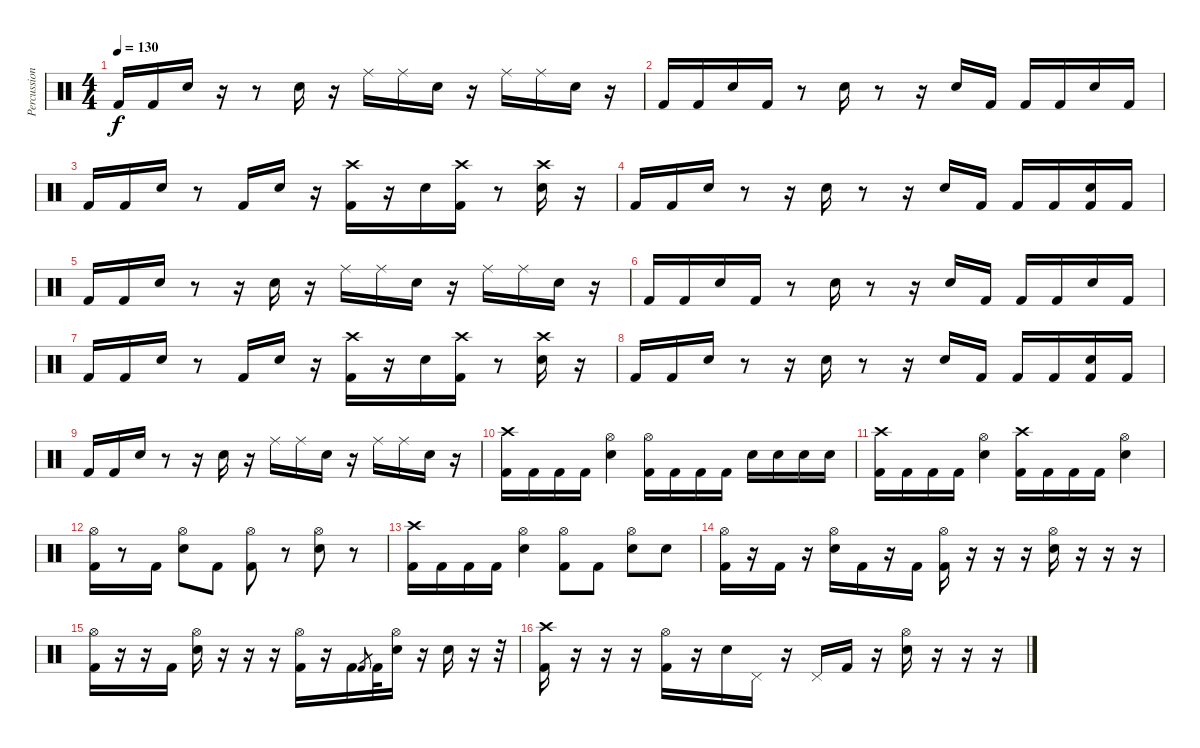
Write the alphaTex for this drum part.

\track ("Percussion" "Percussion") {instrument percussion}
\staff {score}
\articulation defaults
\ts (4 4)
\tempo 130
\clef neutral
\ks c "Kick (hit) 2".16{dy f} "Kick (hit) 2".16 "Snare (hit) 2".16
r.16 r.8 "Snare (hit) 2".16 r.16 "Ride (middle)".16 "Ride (middle)".16 "Snare (hit) 2".16 r.16 "Ride (middle)".16 "Ride (middle)".16 "Snare (hit) 2".16 r.16 |
"Kick (hit) 2".16 "Kick (hit) 2".16 "Snare (hit) 2".16 "Kick (hit) 2".16 r.8 "Snare (hit) 2".16 r.8 r.16 "Snare (hit) 2".16 "Kick (hit) 2".16 "Kick (hit) 2".16 "Kick (hit) 2".16 "Snare (hit) 2".16 "Kick (hit) 2".16 |
"Kick (hit) 2".16 "Kick (hit) 2".16 "Snare (hit) 2".16 r.8 "Kick (hit) 2".16 "Snare (hit) 2".16 r.16 ("Crash high (hit)" "Kick (hit) 2").16 r.16 "Snare (hit) 2".16 ("Crash high (hit)" "Kick (hit) 2").16 r.8 ("Crash high (hit)" "Snare (hit) 2").16 r.16 |
"Kick (hit) 2".16 "Kick (hit) 2".16 "Snare (hit) 2".16 r.8 r.16 "Snare (hit) 2".16 r.8 r.16 "Snare (hit) 2".16 "Kick (hit) 2".16 "Kick (hit) 2".16 "Kick (hit) 2".16 ("Snare (hit) 2" "Kick (hit) 2").16 "Kick (hit) 2".16 |
"Kick (hit) 2".16 "Kick (hit) 2".16 "Snare (hit) 2".16 r.8 r.16 "Snare (hit) 2".16 r.16 "Ride (middle)".16 "Ride (middle)".16 "Snare (hit) 2".16 r.16 "Ride (middle)".16 "Ride (middle)".16 "Snare (hit) 2".16 r.16 |
"Kick (hit) 2".16 "Kick (hit) 2".16 "Snare (hit) 2".16 "Kick (hit) 2".16 r.8 "Snare (hit) 2".16 r.8 r.16 "Snare (hit) 2".16 "Kick (hit) 2".16 "Kick (hit) 2".16 "Kick (hit) 2".16 "Snare (hit) 2".16 "Kick (hit) 2".16 |
"Kick (hit) 2".16 "Kick (hit) 2".16 "Snare (hit) 2".16 r.8 "Kick (hit) 2".16 "Snare (hit) 2".16 r.16 ("Crash high (hit)" "Kick (hit) 2").16 r.16 "Snare (hit) 2".16 ("Crash high (hit)" "Kick (hit) 2").16 r.8 ("Crash high (hit)" "Snare (hit) 2").16 r.16 |
"Kick (hit) 2".16 "Kick (hit) 2".16 "Snare (hit) 2".16 r.8 r.16 "Snare (hit) 2".16 r.8 r.16 "Snare (hit) 2".16 "Kick (hit) 2".16 "Kick (hit) 2".16 "Kick (hit) 2".16 ("Snare (hit) 2" "Kick (hit) 2").16 "Kick (hit) 2".16 |
"Kick (hit) 2".16 "Kick (hit) 2".16 "Snare (hit) 2".16 r.8 r.16 "Snare (hit) 2".16 r.16 "Ride (middle)".16 "Ride (middle)".16 "Snare (hit) 2".16 r.16 "Ride (middle)".16 "Ride (middle)".16 "Snare (hit) 2".16 r.16 |
("Crash high (hit)" "Kick (hit) 2").16 "Kick (hit) 2".16 "Kick (hit) 2".16 "Kick (hit) 2".16 ("Hi-Hat (open)" "Snare (hit) 2").4 ("Hi-Hat (open)" "Kick (hit) 2").16 "Kick (hit) 2".16 "Kick (hit) 2".16 "Kick (hit) 2".16 "Snare (hit) 2".16 "Snare (hit) 2".16 "Snare (hit) 2".16 "Snare (hit) 2".16 |
("Crash high (hit)" "Kick (hit) 2").16 "Kick (hit) 2".16 "Kick (hit) 2".16 "Kick (hit) 2".16 ("Hi-Hat (open)" "Snare (hit) 2").4 ("Crash high (hit)" "Kick (hit) 2").16 "Kick (hit) 2".16 "Kick (hit) 2".16 "Kick (hit) 2".16 ("Hi-Hat (open)" "Snare (hit) 2").4 |
("Hi-Hat (open)" "Kick (hit) 2").16 r.8 "Kick (hit) 2".16 ("Hi-Hat (open)" "Snare (hit) 2").8 "Kick (hit) 2".8 ("Hi-Hat (open)" "Kick (hit) 2").8 r.8 ("Hi-Hat (open)" "Snare (hit) 2").8 r.8 |
("Crash high (hit)" "Kick (hit) 2").16 "Kick (hit) 2".16 "Kick (hit) 2".16 "Kick (hit) 2".16 ("Hi-Hat (open)" "Snare (hit) 2").4 ("Hi-Hat (open)" "Kick (hit) 2").8 "Kick (hit) 2".8 ("Hi-Hat (open)" "Snare (hit) 2").8 "Snare (hit) 2".8 |
("Hi-Hat (open)" "Kick (hit) 2").16 r.16 "Kick (hit) 2".16 r.16 ("Hi-Hat (open)" "Snare (hit) 2").16 "Kick (hit) 2".16 r.16 "Kick (hit) 2".16 ("Hi-Hat (open)" "Kick (hit) 2").16 r.16 r.16 r.16 ("Hi-Hat (open)" "Snare (hit) 2").16 r.16 r.16 r.16 |
("Hi-Hat (open)" "Kick (hit) 2").16 r.16 r.16 "Kick (hit) 2".16 ("Hi-Hat (open)" "Snare (hit) 2").16 r.16 r.16 r.16 ("Hi-Hat (open)" "Kick (hit) 2").16 r.16 "Kick (hit) 2".16 "Kick (hit) 2".8{gr} "Kick (hit) 2".32 ("Hi-Hat (open)" "Snare (hit) 2").16 r.16 "Snare (hit) 2".16 r.16 r.32 |
("Crash high (hit)" "Kick (hit) 2").16 r.16 r.16 r.16 ("Hi-Hat (open)" "Kick (hit) 2").16 r.16 "Snare (hit) 2".16 "Pedal Hi-Hat (hit)".16 r.16 "Pedal Hi-Hat (hit)".16 "Kick (hit) 2".16 r.16 ("Hi-Hat (open)" "Snare (hit) 2").16 r.16 r.16 r.16
